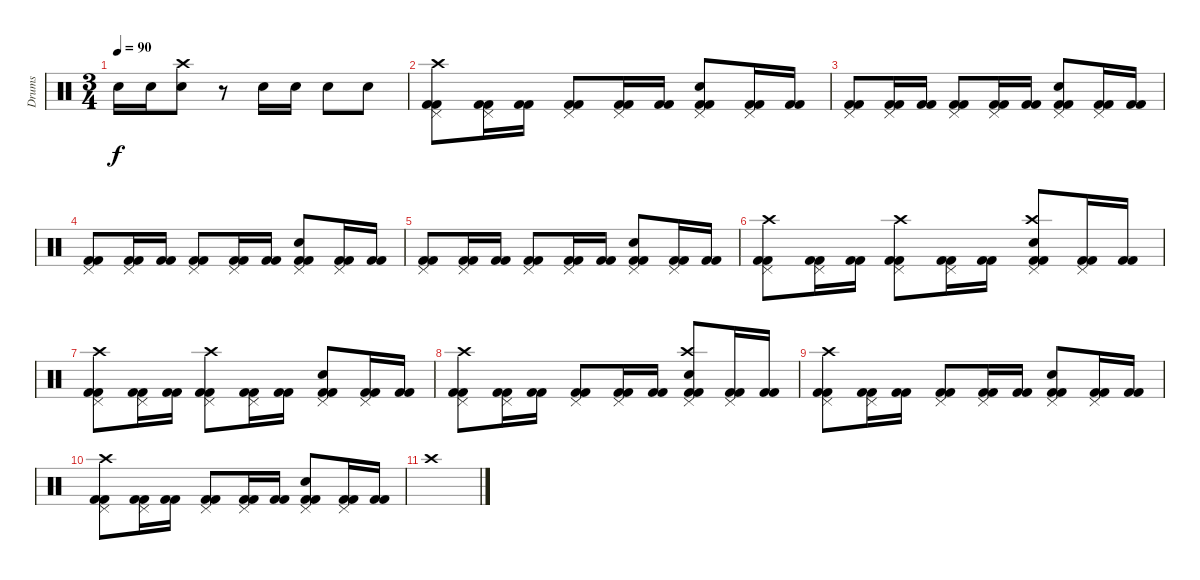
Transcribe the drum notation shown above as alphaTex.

\track ("Drums" "Drums") {instrument percussion bank 41}
\staff
\articulation defaults
\ts (3 4)
\tempo 90
\clef neutral
\ks c "Snare (hit) 2".16{dy f} "Snare (hit) 2".16
("Snare (hit) 2" "Crash high (hit)").8 r.8 "Snare (hit) 2".16 "Snare (hit) 2".16 "Snare (hit) 2".8 "Snare (hit) 2".8 |
("Kick (hit) 2" "Kick (hit) 2" "Pedal Hi-Hat (hit)" "Crash high (hit)").8 ("Kick (hit) 2" "Kick (hit) 2" "Pedal Hi-Hat (hit)").16 ("Kick (hit) 2" "Kick (hit) 2").16 ("Kick (hit) 2" "Kick (hit) 2" "Pedal Hi-Hat (hit)").8 ("Kick (hit) 2" "Kick (hit) 2" "Pedal Hi-Hat (hit)").16 ("Kick (hit) 2" "Kick (hit) 2").16 ("Kick (hit) 2" "Kick (hit) 2" "Snare (hit) 2" "Pedal Hi-Hat (hit)").8 ("Kick (hit) 2" "Kick (hit) 2" "Pedal Hi-Hat (hit)").16 ("Kick (hit) 2" "Kick (hit) 2").16 |
("Kick (hit) 2" "Kick (hit) 2" "Pedal Hi-Hat (hit)").8 ("Kick (hit) 2" "Kick (hit) 2" "Pedal Hi-Hat (hit)").16 ("Kick (hit) 2" "Kick (hit) 2").16 ("Kick (hit) 2" "Kick (hit) 2" "Pedal Hi-Hat (hit)").8 ("Kick (hit) 2" "Kick (hit) 2" "Pedal Hi-Hat (hit)").16 ("Kick (hit) 2" "Kick (hit) 2").16 ("Kick (hit) 2" "Kick (hit) 2" "Snare (hit) 2" "Pedal Hi-Hat (hit)").8 ("Kick (hit) 2" "Kick (hit) 2" "Pedal Hi-Hat (hit)").16 ("Kick (hit) 2" "Kick (hit) 2").16 |
("Kick (hit) 2" "Kick (hit) 2" "Pedal Hi-Hat (hit)").8 ("Kick (hit) 2" "Kick (hit) 2" "Pedal Hi-Hat (hit)").16 ("Kick (hit) 2" "Kick (hit) 2").16 ("Kick (hit) 2" "Kick (hit) 2" "Pedal Hi-Hat (hit)").8 ("Kick (hit) 2" "Kick (hit) 2" "Pedal Hi-Hat (hit)").16 ("Kick (hit) 2" "Kick (hit) 2").16 ("Kick (hit) 2" "Kick (hit) 2" "Snare (hit) 2" "Pedal Hi-Hat (hit)").8 ("Kick (hit) 2" "Kick (hit) 2" "Pedal Hi-Hat (hit)").16 ("Kick (hit) 2" "Kick (hit) 2").16 |
("Kick (hit) 2" "Kick (hit) 2" "Pedal Hi-Hat (hit)").8 ("Kick (hit) 2" "Kick (hit) 2" "Pedal Hi-Hat (hit)").16 ("Kick (hit) 2" "Kick (hit) 2").16 ("Kick (hit) 2" "Kick (hit) 2" "Pedal Hi-Hat (hit)").8 ("Kick (hit) 2" "Kick (hit) 2" "Pedal Hi-Hat (hit)").16 ("Kick (hit) 2" "Kick (hit) 2").16 ("Kick (hit) 2" "Kick (hit) 2" "Snare (hit) 2" "Pedal Hi-Hat (hit)").8 ("Kick (hit) 2" "Kick (hit) 2" "Pedal Hi-Hat (hit)").16 ("Kick (hit) 2" "Kick (hit) 2").16 |
("Kick (hit) 2" "Kick (hit) 2" "Pedal Hi-Hat (hit)" "Crash high (hit)").8 ("Kick (hit) 2" "Kick (hit) 2" "Pedal Hi-Hat (hit)").16 ("Kick (hit) 2" "Kick (hit) 2").16 ("Kick (hit) 2" "Kick (hit) 2" "Pedal Hi-Hat (hit)" "Crash high (hit)").8 ("Kick (hit) 2" "Kick (hit) 2" "Pedal Hi-Hat (hit)").16 ("Kick (hit) 2" "Kick (hit) 2").16 ("Kick (hit) 2" "Kick (hit) 2" "Snare (hit) 2" "Pedal Hi-Hat (hit)" "Crash high (hit)").8 ("Kick (hit) 2" "Kick (hit) 2" "Pedal Hi-Hat (hit)").16 ("Kick (hit) 2" "Kick (hit) 2").16 |
("Kick (hit) 2" "Kick (hit) 2" "Pedal Hi-Hat (hit)" "Crash high (hit)").8 ("Kick (hit) 2" "Kick (hit) 2" "Pedal Hi-Hat (hit)").16 ("Kick (hit) 2" "Kick (hit) 2").16 ("Kick (hit) 2" "Kick (hit) 2" "Pedal Hi-Hat (hit)" "Crash high (hit)").8 ("Kick (hit) 2" "Kick (hit) 2" "Pedal Hi-Hat (hit)").16 ("Kick (hit) 2" "Kick (hit) 2").16 ("Kick (hit) 2" "Kick (hit) 2" "Snare (hit) 2" "Pedal Hi-Hat (hit)").8 ("Kick (hit) 2" "Kick (hit) 2" "Pedal Hi-Hat (hit)").16 ("Kick (hit) 2" "Kick (hit) 2").16 |
("Kick (hit) 2" "Kick (hit) 2" "Pedal Hi-Hat (hit)" "Crash high (hit)").8 ("Kick (hit) 2" "Kick (hit) 2" "Pedal Hi-Hat (hit)").16 ("Kick (hit) 2" "Kick (hit) 2").16 ("Kick (hit) 2" "Kick (hit) 2" "Pedal Hi-Hat (hit)").8 ("Kick (hit) 2" "Kick (hit) 2" "Pedal Hi-Hat (hit)").16 ("Kick (hit) 2" "Kick (hit) 2").16 ("Kick (hit) 2" "Kick (hit) 2" "Snare (hit) 2" "Pedal Hi-Hat (hit)" "Crash high (hit)").8 ("Kick (hit) 2" "Kick (hit) 2" "Pedal Hi-Hat (hit)").16 ("Kick (hit) 2" "Kick (hit) 2").16 |
("Kick (hit) 2" "Kick (hit) 2" "Pedal Hi-Hat (hit)" "Crash high (hit)").8 ("Kick (hit) 2" "Kick (hit) 2" "Pedal Hi-Hat (hit)").16 ("Kick (hit) 2" "Kick (hit) 2").16 ("Kick (hit) 2" "Kick (hit) 2" "Pedal Hi-Hat (hit)").8 ("Kick (hit) 2" "Kick (hit) 2" "Pedal Hi-Hat (hit)").16 ("Kick (hit) 2" "Kick (hit) 2").16 ("Kick (hit) 2" "Kick (hit) 2" "Snare (hit) 2" "Pedal Hi-Hat (hit)").8 ("Kick (hit) 2" "Kick (hit) 2" "Pedal Hi-Hat (hit)").16 ("Kick (hit) 2" "Kick (hit) 2").16 |
("Kick (hit) 2" "Kick (hit) 2" "Pedal Hi-Hat (hit)" "Crash high (hit)").8 ("Kick (hit) 2" "Kick (hit) 2" "Pedal Hi-Hat (hit)").16 ("Kick (hit) 2" "Kick (hit) 2").16 ("Kick (hit) 2" "Kick (hit) 2" "Pedal Hi-Hat (hit)").8 ("Kick (hit) 2" "Kick (hit) 2" "Pedal Hi-Hat (hit)").16 ("Kick (hit) 2" "Kick (hit) 2").16 ("Kick (hit) 2" "Kick (hit) 2" "Snare (hit) 2" "Pedal Hi-Hat (hit)").8 ("Kick (hit) 2" "Kick (hit) 2" "Pedal Hi-Hat (hit)").16 ("Kick (hit) 2" "Kick (hit) 2").16 |
"Crash high (hit)".1
